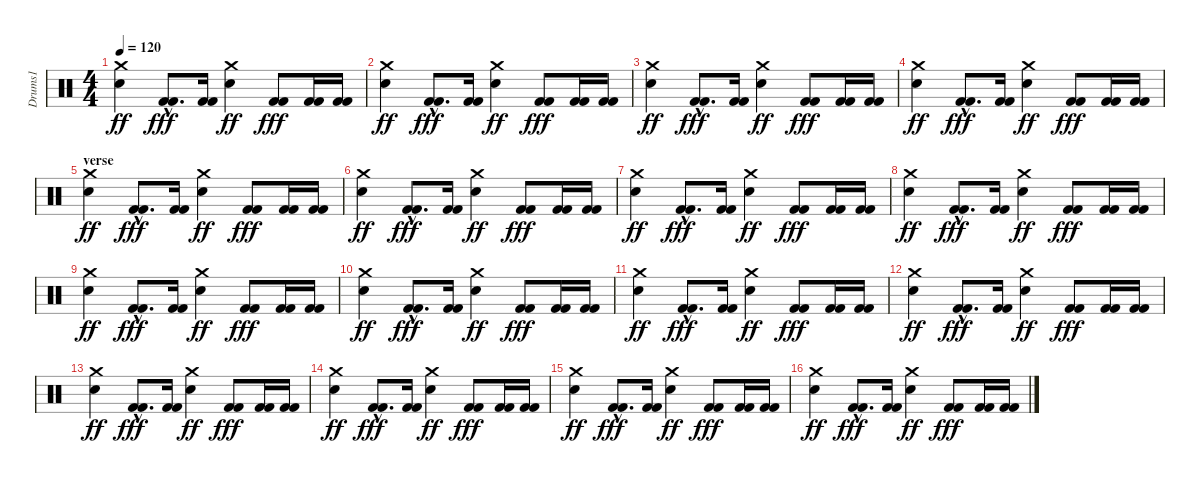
\track ("Drums1" "Drums1") {instrument percussion}
\staff {score}
\articulation defaults
\ts (4 4)
\tempo 120
\clef neutral
\ks c
("Crash medium (hit)" "Snare (hit) 2").4{dy ff} ("Kick (hit) 2"{hac} "Kick (hit) 2"{hac}).8{d dy fff} ("Kick (hit) 2" "Kick (hit) 2").16 ("Crash medium (hit)" "Snare (hit) 2").4{dy ff} ("Kick (hit) 2" "Kick (hit) 2").8{dy fff} ("Kick (hit) 2" "Kick (hit) 2").16 ("Kick (hit) 2" "Kick (hit) 2").16 |
("Crash medium (hit)" "Snare (hit) 2").4{dy ff} ("Kick (hit) 2"{hac} "Kick (hit) 2"{hac}).8{d dy fff} ("Kick (hit) 2" "Kick (hit) 2").16 ("Crash medium (hit)" "Snare (hit) 2").4{dy ff} ("Kick (hit) 2" "Kick (hit) 2").8{dy fff} ("Kick (hit) 2" "Kick (hit) 2").16 ("Kick (hit) 2" "Kick (hit) 2").16 |
("Crash medium (hit)" "Snare (hit) 2").4{dy ff} ("Kick (hit) 2"{hac} "Kick (hit) 2"{hac}).8{d dy fff} ("Kick (hit) 2" "Kick (hit) 2").16 ("Crash medium (hit)" "Snare (hit) 2").4{dy ff} ("Kick (hit) 2" "Kick (hit) 2").8{dy fff} ("Kick (hit) 2" "Kick (hit) 2").16 ("Kick (hit) 2" "Kick (hit) 2").16 |
("Crash medium (hit)" "Snare (hit) 2").4{dy ff} ("Kick (hit) 2"{hac} "Kick (hit) 2"{hac}).8{d dy fff} ("Kick (hit) 2" "Kick (hit) 2").16 ("Crash medium (hit)" "Snare (hit) 2").4{dy ff} ("Kick (hit) 2" "Kick (hit) 2").8{dy fff} ("Kick (hit) 2" "Kick (hit) 2").16 ("Kick (hit) 2" "Kick (hit) 2").16 |
\section ("" "verse")
("Crash medium (hit)" "Snare (hit) 2").4{dy ff} ("Kick (hit) 2"{hac} "Kick (hit) 2"{hac}).8{d dy fff} ("Kick (hit) 2" "Kick (hit) 2").16 ("Crash medium (hit)" "Snare (hit) 2").4{dy ff} ("Kick (hit) 2" "Kick (hit) 2").8{dy fff} ("Kick (hit) 2" "Kick (hit) 2").16 ("Kick (hit) 2" "Kick (hit) 2").16 |
("Crash medium (hit)" "Snare (hit) 2").4{dy ff} ("Kick (hit) 2"{hac} "Kick (hit) 2"{hac}).8{d dy fff} ("Kick (hit) 2" "Kick (hit) 2").16 ("Crash medium (hit)" "Snare (hit) 2").4{dy ff} ("Kick (hit) 2" "Kick (hit) 2").8{dy fff} ("Kick (hit) 2" "Kick (hit) 2").16 ("Kick (hit) 2" "Kick (hit) 2").16 |
("Crash medium (hit)" "Snare (hit) 2").4{dy ff} ("Kick (hit) 2"{hac} "Kick (hit) 2"{hac}).8{d dy fff} ("Kick (hit) 2" "Kick (hit) 2").16 ("Crash medium (hit)" "Snare (hit) 2").4{dy ff} ("Kick (hit) 2" "Kick (hit) 2").8{dy fff} ("Kick (hit) 2" "Kick (hit) 2").16 ("Kick (hit) 2" "Kick (hit) 2").16 |
("Crash medium (hit)" "Snare (hit) 2").4{dy ff} ("Kick (hit) 2"{hac} "Kick (hit) 2"{hac}).8{d dy fff} ("Kick (hit) 2" "Kick (hit) 2").16 ("Crash medium (hit)" "Snare (hit) 2").4{dy ff} ("Kick (hit) 2" "Kick (hit) 2").8{dy fff} ("Kick (hit) 2" "Kick (hit) 2").16 ("Kick (hit) 2" "Kick (hit) 2").16 |
("Crash medium (hit)" "Snare (hit) 2").4{dy ff} ("Kick (hit) 2"{hac} "Kick (hit) 2"{hac}).8{d dy fff} ("Kick (hit) 2" "Kick (hit) 2").16 ("Crash medium (hit)" "Snare (hit) 2").4{dy ff} ("Kick (hit) 2" "Kick (hit) 2").8{dy fff} ("Kick (hit) 2" "Kick (hit) 2").16 ("Kick (hit) 2" "Kick (hit) 2").16 |
("Crash medium (hit)" "Snare (hit) 2").4{dy ff} ("Kick (hit) 2"{hac} "Kick (hit) 2"{hac}).8{d dy fff} ("Kick (hit) 2" "Kick (hit) 2").16 ("Crash medium (hit)" "Snare (hit) 2").4{dy ff} ("Kick (hit) 2" "Kick (hit) 2").8{dy fff} ("Kick (hit) 2" "Kick (hit) 2").16 ("Kick (hit) 2" "Kick (hit) 2").16 |
("Crash medium (hit)" "Snare (hit) 2").4{dy ff} ("Kick (hit) 2"{hac} "Kick (hit) 2"{hac}).8{d dy fff} ("Kick (hit) 2" "Kick (hit) 2").16 ("Crash medium (hit)" "Snare (hit) 2").4{dy ff} ("Kick (hit) 2" "Kick (hit) 2").8{dy fff} ("Kick (hit) 2" "Kick (hit) 2").16 ("Kick (hit) 2" "Kick (hit) 2").16 |
("Crash medium (hit)" "Snare (hit) 2").4{dy ff} ("Kick (hit) 2"{hac} "Kick (hit) 2"{hac}).8{d dy fff} ("Kick (hit) 2" "Kick (hit) 2").16 ("Crash medium (hit)" "Snare (hit) 2").4{dy ff} ("Kick (hit) 2" "Kick (hit) 2").8{dy fff} ("Kick (hit) 2" "Kick (hit) 2").16 ("Kick (hit) 2" "Kick (hit) 2").16 |
("Crash medium (hit)" "Snare (hit) 2").4{dy ff} ("Kick (hit) 2"{hac} "Kick (hit) 2"{hac}).8{d dy fff} ("Kick (hit) 2" "Kick (hit) 2").16 ("Crash medium (hit)" "Snare (hit) 2").4{dy ff} ("Kick (hit) 2" "Kick (hit) 2").8{dy fff} ("Kick (hit) 2" "Kick (hit) 2").16 ("Kick (hit) 2" "Kick (hit) 2").16 |
("Crash medium (hit)" "Snare (hit) 2").4{dy ff} ("Kick (hit) 2"{hac} "Kick (hit) 2"{hac}).8{d dy fff} ("Kick (hit) 2" "Kick (hit) 2").16 ("Crash medium (hit)" "Snare (hit) 2").4{dy ff} ("Kick (hit) 2" "Kick (hit) 2").8{dy fff} ("Kick (hit) 2" "Kick (hit) 2").16 ("Kick (hit) 2" "Kick (hit) 2").16 |
("Crash medium (hit)" "Snare (hit) 2").4{dy ff} ("Kick (hit) 2"{hac} "Kick (hit) 2"{hac}).8{d dy fff} ("Kick (hit) 2" "Kick (hit) 2").16 ("Crash medium (hit)" "Snare (hit) 2").4{dy ff} ("Kick (hit) 2" "Kick (hit) 2").8{dy fff} ("Kick (hit) 2" "Kick (hit) 2").16 ("Kick (hit) 2" "Kick (hit) 2").16 |
("Crash medium (hit)" "Snare (hit) 2").4{dy ff} ("Kick (hit) 2"{hac} "Kick (hit) 2"{hac}).8{d dy fff} ("Kick (hit) 2" "Kick (hit) 2").16 ("Crash medium (hit)" "Snare (hit) 2").4{dy ff} ("Kick (hit) 2" "Kick (hit) 2").8{dy fff} ("Kick (hit) 2" "Kick (hit) 2").16 ("Kick (hit) 2" "Kick (hit) 2").16
